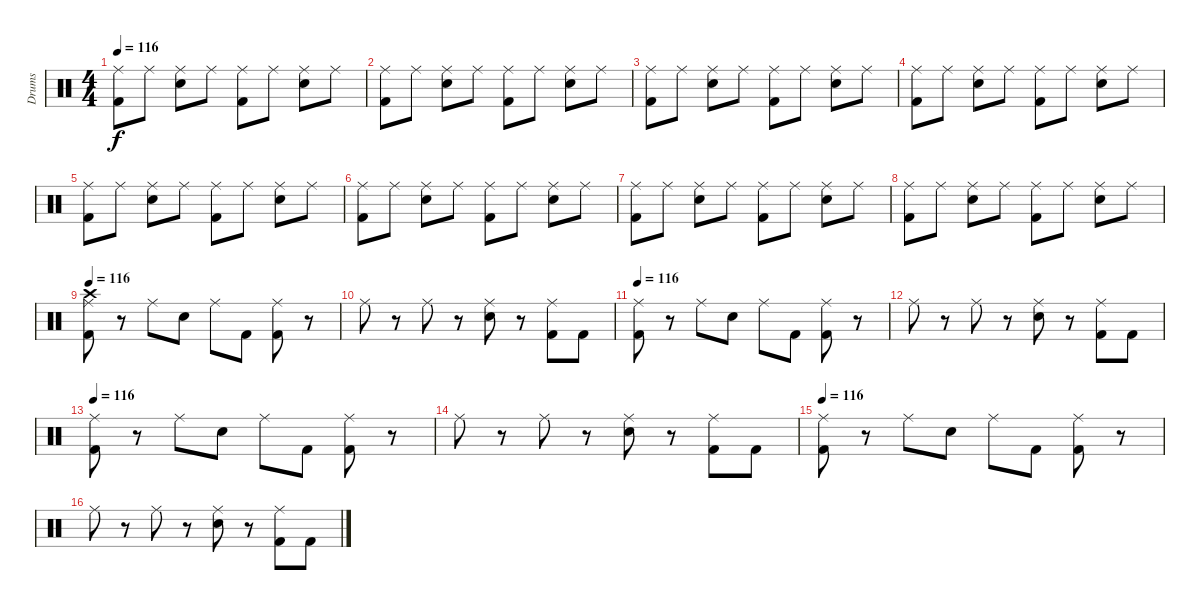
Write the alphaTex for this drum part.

\track ("Drums" "Drums") {instrument percussion}
\staff {score}
\articulation defaults
\ts (4 4)
\tempo 116
\clef neutral
\ks c
("Ride (middle)" "Kick (hit) 2").8{dy f} "Ride (middle)".8 ("Ride (middle)" "Electric Snare (hit)").8 "Ride (middle)".8 ("Ride (middle)" "Kick (hit) 2").8 "Ride (middle)".8 ("Ride (middle)" "Electric Snare (hit)").8 "Ride (middle)".8 |
("Ride (middle)" "Kick (hit) 2").8 "Ride (middle)".8 ("Ride (middle)" "Electric Snare (hit)").8 "Ride (middle)".8 ("Ride (middle)" "Kick (hit) 2").8 "Ride (middle)".8 ("Ride (middle)" "Electric Snare (hit)").8 "Ride (middle)".8 |
("Ride (middle)" "Kick (hit) 2").8 "Ride (middle)".8 ("Ride (middle)" "Electric Snare (hit)").8 "Ride (middle)".8 ("Ride (middle)" "Kick (hit) 2").8 "Ride (middle)".8 ("Ride (middle)" "Electric Snare (hit)").8 "Ride (middle)".8 |
("Ride (middle)" "Kick (hit) 2").8 "Ride (middle)".8 ("Ride (middle)" "Electric Snare (hit)").8 "Ride (middle)".8 ("Ride (middle)" "Kick (hit) 2").8 "Ride (middle)".8 ("Ride (middle)" "Electric Snare (hit)").8 "Ride (middle)".8 |
("Ride (middle)" "Kick (hit) 2").8 "Ride (middle)".8 ("Ride (middle)" "Electric Snare (hit)").8 "Ride (middle)".8 ("Ride (middle)" "Kick (hit) 2").8 "Ride (middle)".8 ("Ride (middle)" "Electric Snare (hit)").8 "Ride (middle)".8 |
("Ride (middle)" "Kick (hit) 2").8 "Ride (middle)".8 ("Ride (middle)" "Electric Snare (hit)").8 "Ride (middle)".8 ("Ride (middle)" "Kick (hit) 2").8 "Ride (middle)".8 ("Ride (middle)" "Electric Snare (hit)").8 "Ride (middle)".8 |
("Ride (middle)" "Kick (hit) 2").8 "Ride (middle)".8 ("Ride (middle)" "Electric Snare (hit)").8 "Ride (middle)".8 ("Ride (middle)" "Kick (hit) 2").8 "Ride (middle)".8 ("Ride (middle)" "Electric Snare (hit)").8 "Ride (middle)".8 |
("Ride (middle)" "Kick (hit) 2").8 "Ride (middle)".8 ("Ride (middle)" "Electric Snare (hit)").8 "Ride (middle)".8 ("Ride (middle)" "Kick (hit) 2").8 "Ride (middle)".8 ("Ride (middle)" "Electric Snare (hit)").8 "Ride (middle)".8 |
\tempo 116
("Crash high (hit)" "Ride (middle)" "Kick (hit) 2").8 r.8 "Ride (middle)".8 "Electric Snare (hit)".8 "Ride (middle)".8 "Kick (hit) 2".8 ("Ride (middle)" "Kick (hit) 2").8 r.8 |
"Ride (middle)".8 r.8 "Ride (middle)".8 r.8 ("Ride (middle)" "Electric Snare (hit)").8 r.8 ("Ride (middle)" "Kick (hit) 2").8 "Kick (hit) 2".8 |
\tempo 116
("Ride (middle)" "Kick (hit) 2").8 r.8 "Ride (middle)".8 "Electric Snare (hit)".8 "Ride (middle)".8 "Kick (hit) 2".8 ("Ride (middle)" "Kick (hit) 2").8 r.8 |
"Ride (middle)".8 r.8 "Ride (middle)".8 r.8 ("Ride (middle)" "Electric Snare (hit)").8 r.8 ("Ride (middle)" "Kick (hit) 2").8 "Kick (hit) 2".8 |
\tempo 116
("Ride (middle)" "Kick (hit) 2").8 r.8 "Ride (middle)".8 "Electric Snare (hit)".8 "Ride (middle)".8 "Kick (hit) 2".8 ("Ride (middle)" "Kick (hit) 2").8 r.8 |
"Ride (middle)".8 r.8 "Ride (middle)".8 r.8 ("Ride (middle)" "Electric Snare (hit)").8 r.8 ("Ride (middle)" "Kick (hit) 2").8 "Kick (hit) 2".8 |
\tempo 116
("Ride (middle)" "Kick (hit) 2").8 r.8 "Ride (middle)".8 "Electric Snare (hit)".8 "Ride (middle)".8 "Kick (hit) 2".8 ("Ride (middle)" "Kick (hit) 2").8 r.8 |
"Ride (middle)".8 r.8 "Ride (middle)".8 r.8 ("Ride (middle)" "Electric Snare (hit)").8 r.8 ("Ride (middle)" "Kick (hit) 2").8 "Kick (hit) 2".8
